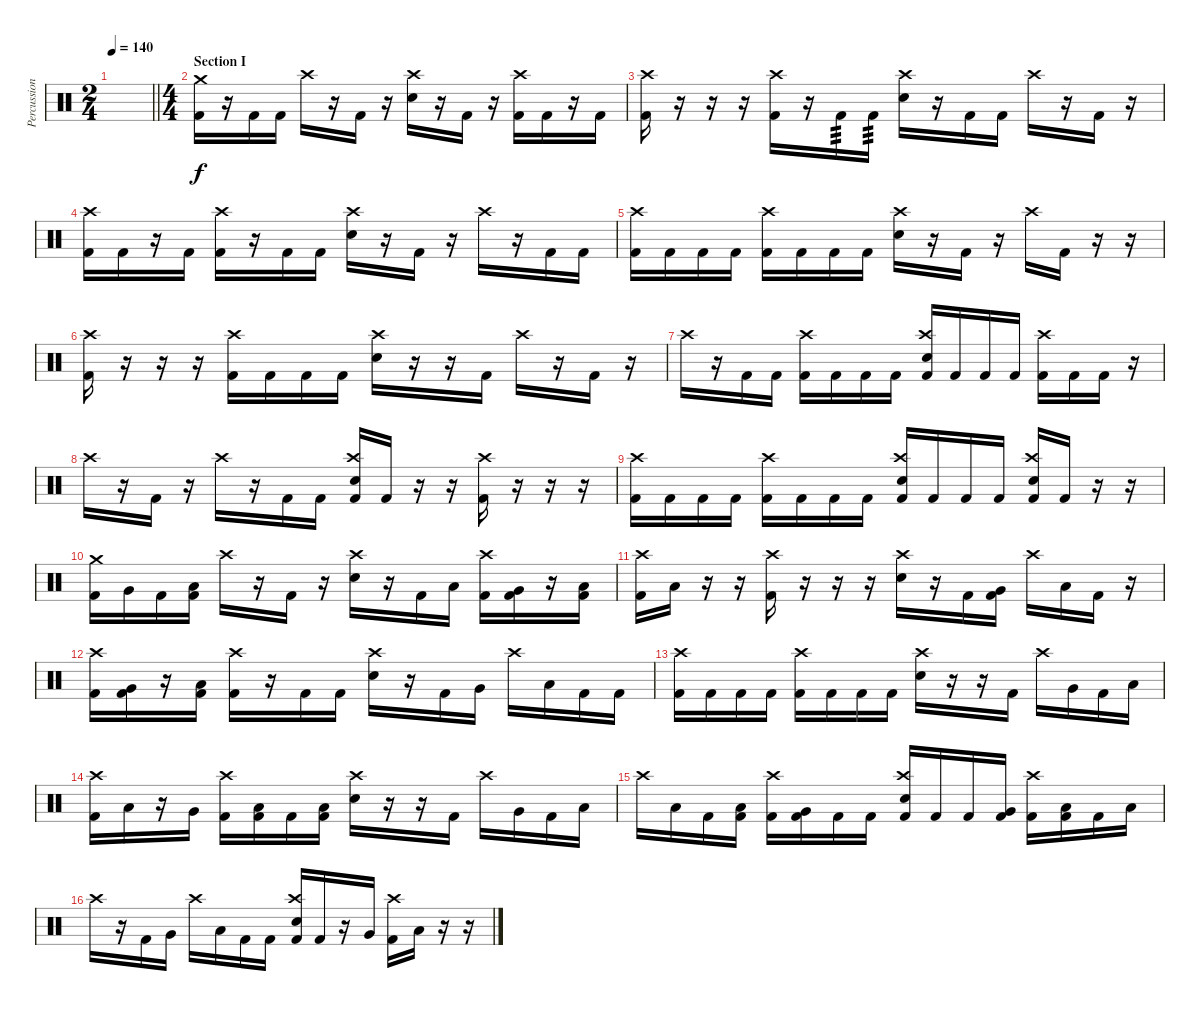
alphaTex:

\track ("Percussion" "Percussion") {instrument percussion}
\staff {score}
\articulation defaults
\ts (2 4)
\tempo 140
\clef neutral
\barLineRight lightlight
\ks c
|
\ts (4 4)
\section ("" "Section I")
("Crash medium (hit)" "Kick (hit) 2").16 r.16 "Kick (hit) 2".16 "Kick (hit) 2".16 "Crash high (hit)".16 r.16 "Kick (hit) 2".16 r.16 ("Crash high (hit)" "Snare (hit) 2").16 r.16 "Kick (hit) 2".16 r.16 ("Crash high (hit)" "Kick (hit) 2").16 "Kick (hit) 2".16 r.16 "Kick (hit) 2".16 |
("Crash high (hit)" "Kick (hit) 2").16 r.16 r.16 r.16 ("Crash high (hit)" "Kick (hit) 2").16 r.16 "Kick (hit) 2".16{tp 3} "Kick (hit) 2".16{tp 3} ("Crash high (hit)" "Snare (hit) 2").16 r.16 "Kick (hit) 2".16 "Kick (hit) 2".16 "Crash high (hit)".16 r.16 "Kick (hit) 2".16 r.16 |
("Crash high (hit)" "Kick (hit) 2").16 "Kick (hit) 2".16 r.16 "Kick (hit) 2".16 ("Crash high (hit)" "Kick (hit) 2").16 r.16 "Kick (hit) 2".16 "Kick (hit) 2".16 ("Crash high (hit)" "Snare (hit) 2").16 r.16 "Kick (hit) 2".16 r.16 "Crash high (hit)".16 r.16 "Kick (hit) 2".16 "Kick (hit) 2".16 |
("Crash high (hit)" "Kick (hit) 2").16 "Kick (hit) 2".16 "Kick (hit) 2".16 "Kick (hit) 2".16 ("Crash high (hit)" "Kick (hit) 2").16 "Kick (hit) 2".16 "Kick (hit) 2".16 "Kick (hit) 2".16 ("Crash high (hit)" "Snare (hit) 2").16 r.16 "Kick (hit) 2".16 r.16 "Crash high (hit)".16 "Kick (hit) 2".16 r.16 r.16 |
("Crash high (hit)" "Kick (hit) 2").16 r.16 r.16 r.16 ("Crash high (hit)" "Kick (hit) 2").16 "Kick (hit) 2".16 "Kick (hit) 2".16 "Kick (hit) 2".16 ("Crash high (hit)" "Snare (hit) 2").16 r.16 r.16 "Kick (hit) 2".16 "Crash high (hit)".16 r.16 "Kick (hit) 2".16 r.16 |
"Crash high (hit)".16 r.16 "Kick (hit) 2".16 "Kick (hit) 2".16 ("Crash high (hit)" "Kick (hit) 2").16 "Kick (hit) 2".16 "Kick (hit) 2".16 "Kick (hit) 2".16 ("Crash high (hit)" "Snare (hit) 2" "Kick (hit) 2").16 "Kick (hit) 2".16 "Kick (hit) 2".16 "Kick (hit) 2".16 ("Crash high (hit)" "Kick (hit) 2").16 "Kick (hit) 2".16 "Kick (hit) 2".16 r.16 |
"Crash high (hit)".16 r.16 "Kick (hit) 2".16 r.16 "Crash high (hit)".16 r.16 "Kick (hit) 2".16 "Kick (hit) 2".16 ("Crash high (hit)" "Snare (hit) 2" "Kick (hit) 2").16 "Kick (hit) 2".16 r.16 r.16 ("Crash high (hit)" "Kick (hit) 2").16 r.16 r.16 r.16 |
("Crash high (hit)" "Kick (hit) 2").16 "Kick (hit) 2".16 "Kick (hit) 2".16 "Kick (hit) 2".16 ("Crash high (hit)" "Kick (hit) 2").16 "Kick (hit) 2".16 "Kick (hit) 2".16 "Kick (hit) 2".16 ("Crash high (hit)" "Snare (hit) 2" "Kick (hit) 2").16 "Kick (hit) 2".16 "Kick (hit) 2".16 "Kick (hit) 2".16 ("Crash high (hit)" "Snare (hit) 2" "Kick (hit) 2").16 "Kick (hit) 2".16 r.16 r.16 |
("Crash medium (hit)" "Kick (hit) 2").16 "Very Low Tom (hit)".16 "Kick (hit) 2".16 ("Low Floor Tom (hit)" "Kick (hit) 2").16 "Crash high (hit)".16 r.16 "Kick (hit) 2".16 r.16 ("Crash high (hit)" "Snare (hit) 2").16 r.16 "Kick (hit) 2".16 "Low Tom (hit)".16 ("Crash high (hit)" "Kick (hit) 2").16 ("Very Low Tom (hit)" "Kick (hit) 2").16 r.16 ("Low Floor Tom (hit)" "Kick (hit) 2").16 |
("Crash high (hit)" "Kick (hit) 2").16 "Low Floor Tom (hit)".16 r.16 r.16 ("Crash high (hit)" "Kick (hit) 2").16 r.16 r.16 r.16 ("Crash high (hit)" "Snare (hit) 2").16 r.16 "Kick (hit) 2".16 ("Very Low Tom (hit)" "Kick (hit) 2").16 "Crash high (hit)".16 "Low Floor Tom (hit)".16 "Kick (hit) 2".16 r.16 |
("Crash high (hit)" "Kick (hit) 2").16 ("Very Low Tom (hit)" "Kick (hit) 2").16 r.16 ("Low Floor Tom (hit)" "Kick (hit) 2").16 ("Crash high (hit)" "Kick (hit) 2").16 r.16 "Kick (hit) 2".16 "Kick (hit) 2".16 ("Crash high (hit)" "Snare (hit) 2").16 r.16 "Kick (hit) 2".16 "Very Low Tom (hit)".16 "Crash high (hit)".16 "Low Floor Tom (hit)".16 "Kick (hit) 2".16 "Kick (hit) 2".16 |
("Crash high (hit)" "Kick (hit) 2").16 "Kick (hit) 2".16 "Kick (hit) 2".16 "Kick (hit) 2".16 ("Crash high (hit)" "Kick (hit) 2").16 "Kick (hit) 2".16 "Kick (hit) 2".16 "Kick (hit) 2".16 ("Crash high (hit)" "Snare (hit) 2").16 r.16 r.16 "Kick (hit) 2".16 "Crash high (hit)".16 "Very Low Tom (hit)".16 "Kick (hit) 2".16 "Low Floor Tom (hit)".16 |
("Crash high (hit)" "Kick (hit) 2").16 "Low Tom (hit)".16 r.16 "Very Low Tom (hit)".16 ("Crash high (hit)" "Kick (hit) 2").16 ("Low Floor Tom (hit)" "Kick (hit) 2").16 "Kick (hit) 2".16 ("Low Floor Tom (hit)" "Kick (hit) 2").16 ("Crash high (hit)" "Snare (hit) 2").16 r.16 r.16 "Kick (hit) 2".16 "Crash high (hit)".16 "Very Low Tom (hit)".16 "Kick (hit) 2".16 "Low Floor Tom (hit)".16 |
"Crash high (hit)".16 "Low Tom (hit)".16 "Kick (hit) 2".16 ("Low Tom (hit)" "Kick (hit) 2").16 ("Crash high (hit)" "Kick (hit) 2").16 ("Very Low Tom (hit)" "Kick (hit) 2").16 "Kick (hit) 2".16 "Kick (hit) 2".16 ("Crash high (hit)" "Snare (hit) 2" "Kick (hit) 2").16 "Kick (hit) 2".16 "Kick (hit) 2".16 ("Very Low Tom (hit)" "Kick (hit) 2").16 ("Crash high (hit)" "Kick (hit) 2").16 ("Low Floor Tom (hit)" "Kick (hit) 2").16 "Kick (hit) 2".16 "Low Floor Tom (hit)".16 |
"Crash high (hit)".16 r.16 "Kick (hit) 2".16 "Very Low Tom (hit)".16 "Crash high (hit)".16 "Low Floor Tom (hit)".16 "Kick (hit) 2".16 "Kick (hit) 2".16 ("Crash high (hit)" "Snare (hit) 2" "Kick (hit) 2").16 "Kick (hit) 2".16 r.16 "Very Low Tom (hit)".16 ("Crash high (hit)" "Kick (hit) 2").16 "Low Floor Tom (hit)".16 r.16 r.16
